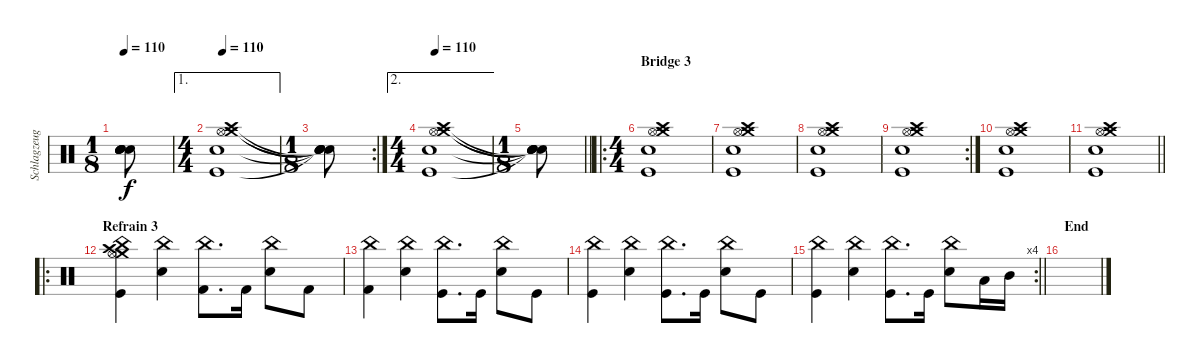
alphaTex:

\track ("Schlagzeug" "Schlagzeug") {instrument percussion}
\staff {score}
\articulation defaults
\ts (1 8)
\tempo 110
\clef neutral
\ks c
("Snare (hit)"{t} "Snare (hit)"{t} "Snare (hit)"{t} "Snare (hit)"{t} "Snare (hit)"{t}).8{dy f} |
\ae 1
\ts (4 4)
\tempo 110
("Hi-Hat (open)" "Crash medium (hit)" "Crash high (hit)" "Snare (hit) 2" "Kick (hit)").1 |
\rc 2
\ts (1 8)
("Snare (hit)"{t} "Snare (hit)"{t} "Snare (hit)"{t} "Snare (hit)"{t} "Snare (hit)"{t}).8 |
\ae 2
\ts (4 4)
\tempo 110
("Hi-Hat (open)" "Crash medium (hit)" "Crash high (hit)" "Snare (hit) 2" "Kick (hit)").1 |
\ts (1 8)
\barLineRight lightlight
("Snare (hit)"{t} "Snare (hit)"{t} "Snare (hit)"{t} "Snare (hit)"{t} "Snare (hit)"{t}).8 |
\ro
\ts (4 4)
\section ("" "Bridge 3")
("Hi-Hat (open)" "Crash medium (hit)" "Crash high (hit)" "Snare (hit) 2" "Kick (hit)").1 |
("Hi-Hat (open)" "Crash medium (hit)" "Crash high (hit)" "Snare (hit) 2" "Kick (hit)").1 |
("Hi-Hat (open)" "Crash medium (hit)" "Crash high (hit)" "Snare (hit) 2" "Kick (hit)").1 |
\rc 2
("Hi-Hat (open)" "Crash medium (hit)" "Crash high (hit)" "Snare (hit) 2" "Kick (hit)").1 |
("Hi-Hat (open)" "Crash medium (hit)" "Crash high (hit)" "Snare (hit) 2" "Kick (hit)").1 |
\barLineRight lightlight
("Hi-Hat (open)" "Crash medium (hit)" "Crash high (hit)" "Snare (hit) 2" "Kick (hit)").1 |
\ro
\section ("" "Refrain 3")
("Kick (hit)" "Crash high (hit)" "China (hit)" "Crash medium (hit)" "Hi-Hat (open)").4 ("China (hit)" "Snare (hit) 2").4 ("China (hit)" "Kick (hit) 2").8{d} "Kick (hit) 2".16 ("China (hit)" "Snare (hit) 2").8 "Kick (hit) 2".8 |
("China (hit)" "Kick (hit) 2").4 ("China (hit)" "Snare (hit) 2").4 ("China (hit)" "Kick (hit)").8{d} "Kick (hit)".16 ("China (hit)" "Snare (hit) 2").8 "Kick (hit)".8 |
("China (hit)" "Kick (hit)").4 ("China (hit)" "Snare (hit) 2").4 ("China (hit)" "Kick (hit)").8{d} "Kick (hit)".16 ("China (hit)" "Snare (hit) 2").8 "Kick (hit)".8 |
\rc 4
\barLineRight lightlight
("China (hit)" "Kick (hit)").4 ("China (hit)" "Snare (hit) 2").4 ("China (hit)" "Kick (hit)").8{d} "Kick (hit)".16 ("Snare (hit) 2" "China (hit)").8 "Low Floor Tom (hit)".16 "Mid Tom (hit)".16 |
\section ("" "End")
